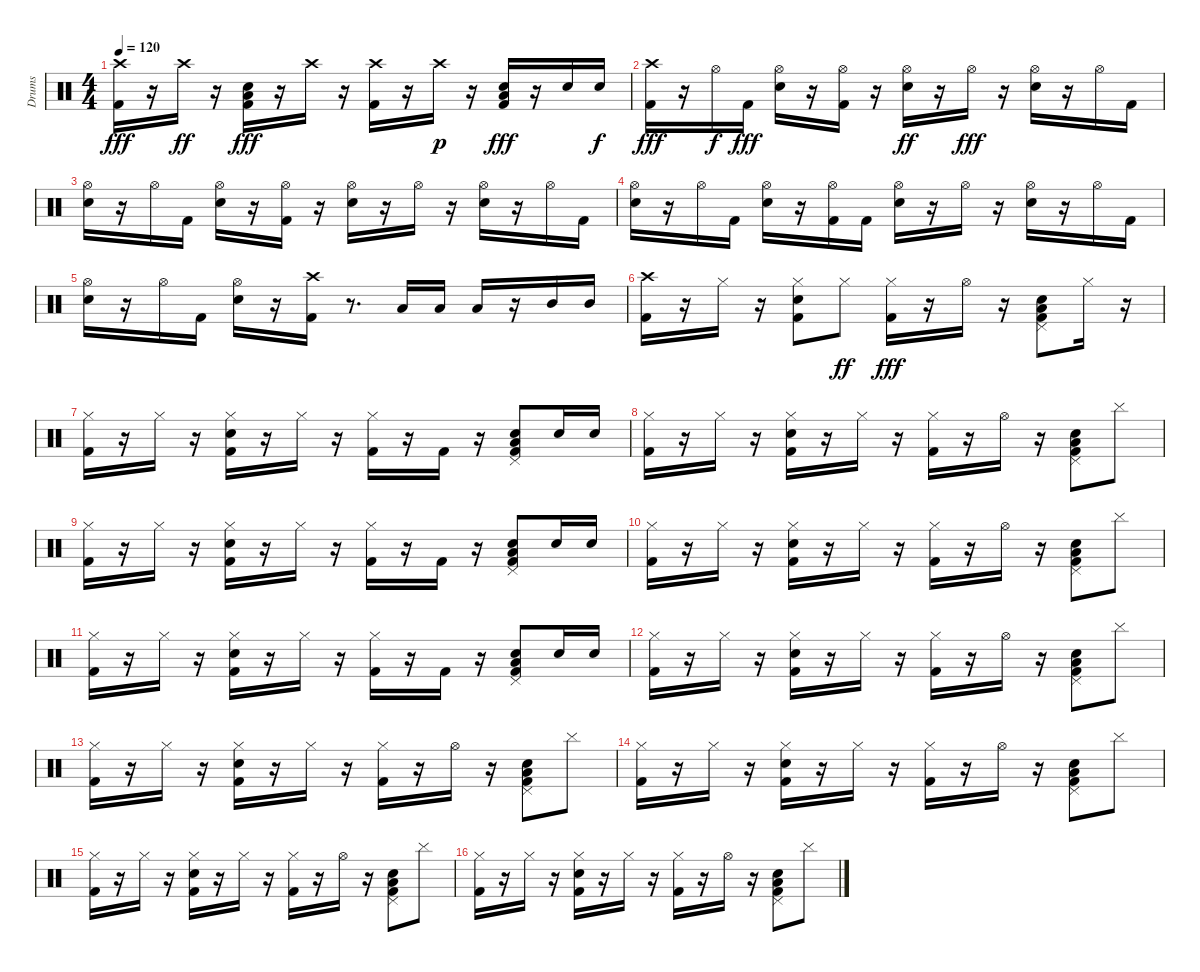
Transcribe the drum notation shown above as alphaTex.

\track ("Drums" "Drums") {instrument percussion}
\staff {score}
\articulation defaults
\ts (4 4)
\tempo 120
\clef neutral
\ks c
("Crash high (hit)" "Kick (hit) 2").16{dy fff} r.16 "Crash high (hit)".16{dy ff} r.16 ("Kick (hit) 2" "Snare (hit) 2" "Low Floor Tom (hit)").16{dy fff} r.16 "Crash high (hit)".16 r.16 ("Kick (hit) 2" "Crash high (hit)").16 r.16 "Crash high (hit)".16{dy p} r.16 ("Kick (hit) 2" "Snare (hit) 2" "Low Floor Tom (hit)").16{dy fff} r.16 "Snare (hit) 2".16 "Snare (hit) 2".16{dy f} |
("Crash high (hit)" "Kick (hit) 2").16{dy fff} r.16 "Hi-Hat (open)".16{dy f} "Kick (hit) 2".16{dy fff} ("Hi-Hat (open)" "Snare (hit) 2").16 r.16 ("Hi-Hat (open)" "Kick (hit) 2").16 r.16 ("Hi-Hat (open)" "Snare (hit) 2").16{dy ff} r.16 "Hi-Hat (open)".16{dy fff} r.16 ("Snare (hit) 2" "Hi-Hat (open)").16 r.16 "Hi-Hat (open)".16 "Kick (hit) 2".16 |
("Snare (hit) 2" "Hi-Hat (open)").16 r.16 "Hi-Hat (open)".16 "Kick (hit) 2".16 ("Snare (hit) 2" "Hi-Hat (open)").16 r.16 ("Hi-Hat (open)" "Kick (hit) 2").16 r.16 ("Snare (hit) 2" "Hi-Hat (open)").16 r.16 "Hi-Hat (open)".16 r.16 ("Hi-Hat (open)" "Snare (hit) 2").16 r.16 "Hi-Hat (open)".16 "Kick (hit) 2".16 |
("Hi-Hat (open)" "Snare (hit) 2").16 r.16 "Hi-Hat (open)".16 "Kick (hit) 2".16 ("Hi-Hat (open)" "Snare (hit) 2").16 r.16 ("Hi-Hat (open)" "Kick (hit) 2").16 "Kick (hit) 2".16 ("Snare (hit) 2" "Hi-Hat (open)").16 r.16 "Hi-Hat (open)".16 r.16 ("Hi-Hat (open)" "Snare (hit) 2").16 r.16 "Hi-Hat (open)".16 "Kick (hit) 2".16 |
("Snare (hit) 2" "Hi-Hat (open)").16 r.16 "Hi-Hat (open)".16 "Kick (hit) 2".16 ("Hi-Hat (open)" "Snare (hit) 2").16 r.16 ("Crash high (hit)" "Kick (hit) 2").16 r.8{d} "Low Tom (hit)".16 "Low Tom (hit)".16 "Low Tom (hit)".16 r.16 "Mid Tom (hit)".16 "Mid Tom (hit)".16 |
("Crash high (hit)" "Kick (hit) 2").16 r.16 "Hi-Hat (closed)".16 r.16 ("Kick (hit) 2" "Hi-Hat (closed)" "Snare (hit) 2").8 "Hi-Hat (closed)".8{dy ff} ("Hi-Hat (closed)" "Kick (hit) 2").16{dy fff} r.16 "Hi-Hat (open)".16 r.16 ("Kick (hit) 2" "Snare (hit) 2" "Low Floor Tom (hit)" "Pedal Hi-Hat (hit)").8 "Hi-Hat (closed)".16 r.16 |
("Hi-Hat (closed)" "Kick (hit) 2").16 r.16 "Hi-Hat (closed)".16 r.16 ("Kick (hit) 2" "Snare (hit) 2" "Hi-Hat (closed)").16 r.16 "Hi-Hat (closed)".16 r.16 ("Hi-Hat (closed)" "Kick (hit) 2").16 r.16 "Kick (hit) 2".16 r.16 ("Kick (hit) 2" "Pedal Hi-Hat (hit)" "Low Floor Tom (hit)" "Snare (hit) 2").8 "Snare (hit) 2".16 "Snare (hit) 2".16 |
("Kick (hit) 2" "Hi-Hat (closed)").16 r.16 "Hi-Hat (closed)".16 r.16 ("Kick (hit) 2" "Hi-Hat (closed)" "Snare (hit) 2").16 r.16 "Hi-Hat (closed)".16 r.16 ("Kick (hit) 2" "Hi-Hat (closed)").16 r.16 "Hi-Hat (open)".16 r.16 ("Kick (hit) 2" "Pedal Hi-Hat (hit)" "Low Floor Tom (hit)" "Snare (hit) 2").8 "Cymbal (hit)".8 |
("Hi-Hat (closed)" "Kick (hit) 2").16 r.16 "Hi-Hat (closed)".16 r.16 ("Kick (hit) 2" "Snare (hit) 2" "Hi-Hat (closed)").16 r.16 "Hi-Hat (closed)".16 r.16 ("Hi-Hat (closed)" "Kick (hit) 2").16 r.16 "Kick (hit) 2".16 r.16 ("Kick (hit) 2" "Pedal Hi-Hat (hit)" "Low Floor Tom (hit)" "Snare (hit) 2").8 "Snare (hit) 2".16 "Snare (hit) 2".16 |
("Kick (hit) 2" "Hi-Hat (closed)").16 r.16 "Hi-Hat (closed)".16 r.16 ("Kick (hit) 2" "Hi-Hat (closed)" "Snare (hit) 2").16 r.16 "Hi-Hat (closed)".16 r.16 ("Kick (hit) 2" "Hi-Hat (closed)").16 r.16 "Hi-Hat (open)".16 r.16 ("Kick (hit) 2" "Pedal Hi-Hat (hit)" "Low Floor Tom (hit)" "Snare (hit) 2").8 "Cymbal (hit)".8 |
("Hi-Hat (closed)" "Kick (hit) 2").16 r.16 "Hi-Hat (closed)".16 r.16 ("Kick (hit) 2" "Snare (hit) 2" "Hi-Hat (closed)").16 r.16 "Hi-Hat (closed)".16 r.16 ("Hi-Hat (closed)" "Kick (hit) 2").16 r.16 "Kick (hit) 2".16 r.16 ("Kick (hit) 2" "Pedal Hi-Hat (hit)" "Low Floor Tom (hit)" "Snare (hit) 2").8 "Snare (hit) 2".16 "Snare (hit) 2".16 |
("Kick (hit) 2" "Hi-Hat (closed)").16 r.16 "Hi-Hat (closed)".16 r.16 ("Kick (hit) 2" "Hi-Hat (closed)" "Snare (hit) 2").16 r.16 "Hi-Hat (closed)".16 r.16 ("Kick (hit) 2" "Hi-Hat (closed)").16 r.16 "Hi-Hat (open)".16 r.16 ("Kick (hit) 2" "Pedal Hi-Hat (hit)" "Low Floor Tom (hit)" "Snare (hit) 2").8 "Cymbal (hit)".8 |
("Kick (hit) 2" "Hi-Hat (closed)").16 r.16 "Hi-Hat (closed)".16 r.16 ("Kick (hit) 2" "Hi-Hat (closed)" "Snare (hit) 2").16 r.16 "Hi-Hat (closed)".16 r.16 ("Kick (hit) 2" "Hi-Hat (closed)").16 r.16 "Hi-Hat (open)".16 r.16 ("Kick (hit) 2" "Pedal Hi-Hat (hit)" "Low Floor Tom (hit)" "Snare (hit) 2").8 "Cymbal (hit)".8 |
("Kick (hit) 2" "Hi-Hat (closed)").16 r.16 "Hi-Hat (closed)".16 r.16 ("Kick (hit) 2" "Hi-Hat (closed)" "Snare (hit) 2").16 r.16 "Hi-Hat (closed)".16 r.16 ("Kick (hit) 2" "Hi-Hat (closed)").16 r.16 "Hi-Hat (open)".16 r.16 ("Kick (hit) 2" "Pedal Hi-Hat (hit)" "Low Floor Tom (hit)" "Snare (hit) 2").8 "Cymbal (hit)".8 |
("Kick (hit) 2" "Hi-Hat (closed)").16 r.16 "Hi-Hat (closed)".16 r.16 ("Kick (hit) 2" "Hi-Hat (closed)" "Snare (hit) 2").16 r.16 "Hi-Hat (closed)".16 r.16 ("Kick (hit) 2" "Hi-Hat (closed)").16 r.16 "Hi-Hat (open)".16 r.16 ("Kick (hit) 2" "Pedal Hi-Hat (hit)" "Low Floor Tom (hit)" "Snare (hit) 2").8 "Cymbal (hit)".8 |
("Kick (hit) 2" "Hi-Hat (closed)").16 r.16 "Hi-Hat (closed)".16 r.16 ("Kick (hit) 2" "Hi-Hat (closed)" "Snare (hit) 2").16 r.16 "Hi-Hat (closed)".16 r.16 ("Kick (hit) 2" "Hi-Hat (closed)").16 r.16 "Hi-Hat (open)".16 r.16 ("Kick (hit) 2" "Pedal Hi-Hat (hit)" "Low Floor Tom (hit)" "Snare (hit) 2").8 "Cymbal (hit)".8
